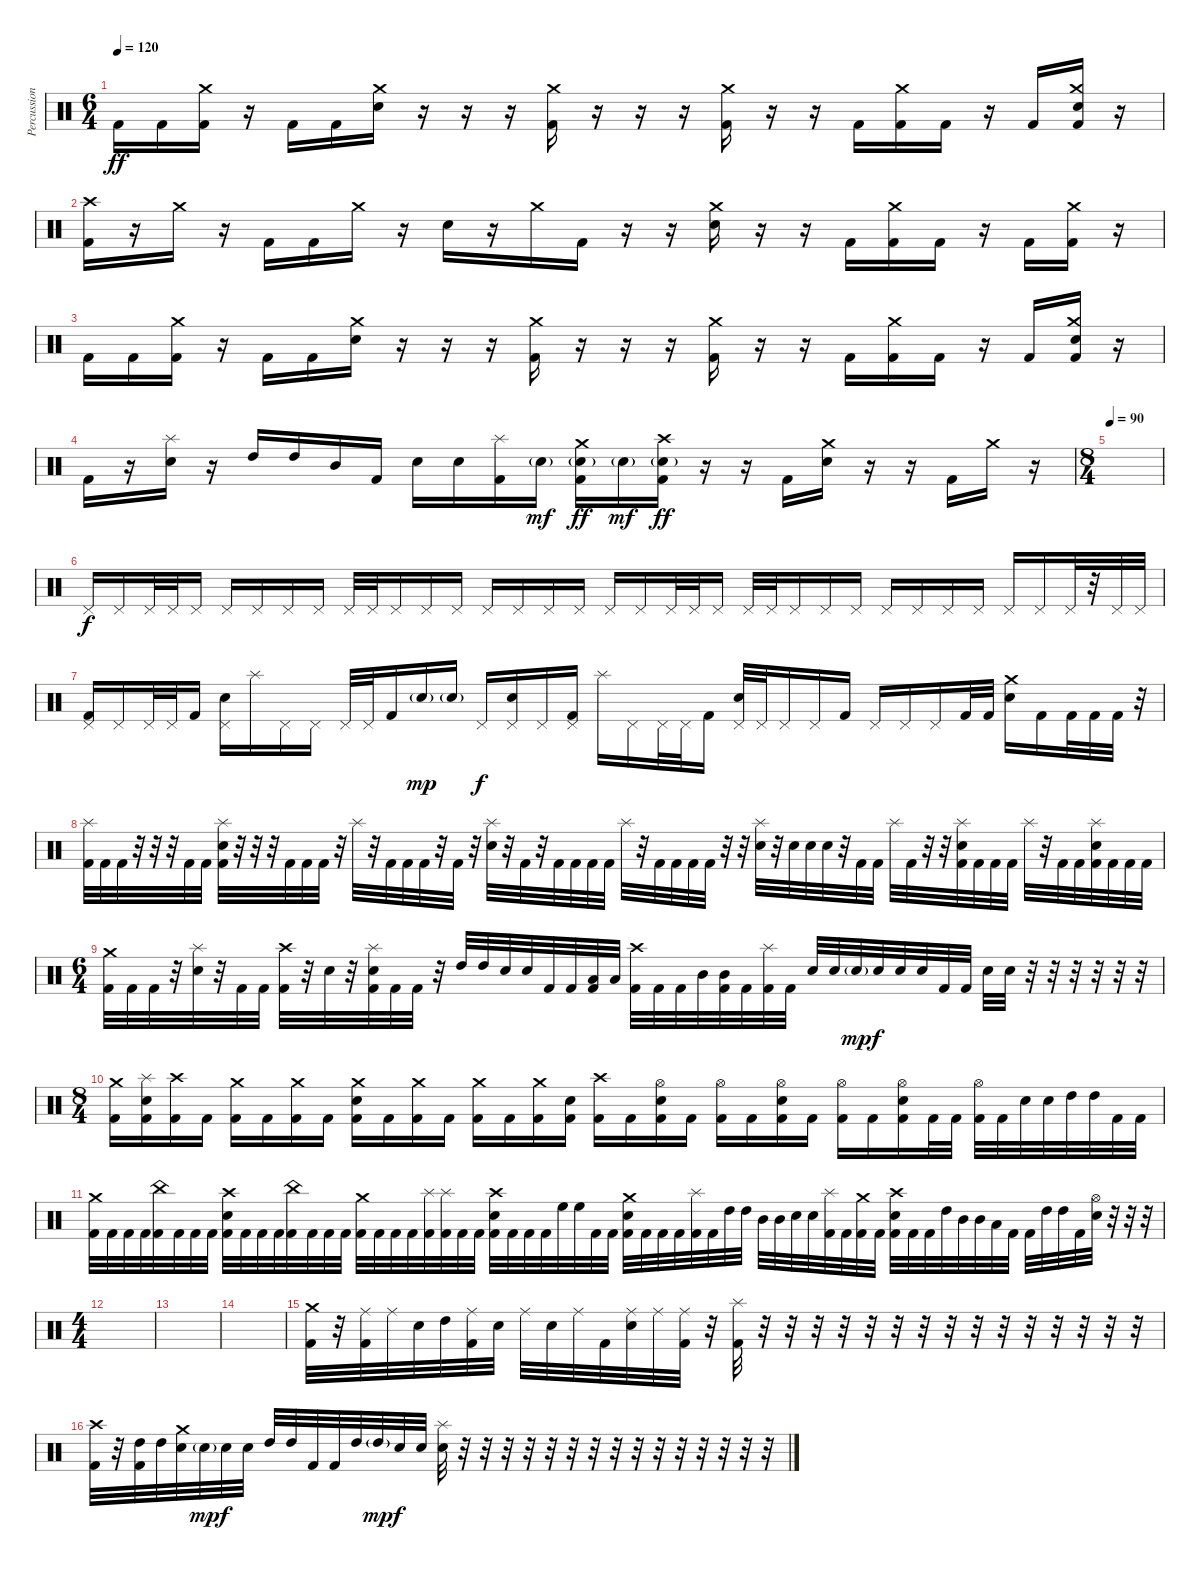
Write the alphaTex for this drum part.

\track ("Percussion" "Percussion") {instrument percussion}
\staff {score}
\articulation defaults
\ts (6 4)
\tempo 120
\clef neutral
\ks c "Kick (hit) 2".16{dy ff} "Kick (hit) 2".16
("Crash medium (hit)" "Kick (hit) 2").16 r.16 "Kick (hit) 2".16 "Kick (hit) 2".16 ("Crash medium (hit)" "Electric Snare (hit)").16 r.16 r.16 r.16 ("Crash medium (hit)" "Kick (hit) 2").16 r.16 r.16 r.16 ("Crash medium (hit)" "Kick (hit) 2").16 r.16 r.16 "Kick (hit) 2".16 ("Crash medium (hit)" "Kick (hit) 2").16 "Kick (hit) 2".16 r.16 "Kick (hit) 2".16 ("Crash medium (hit)" "Electric Snare (hit)" "Kick (hit) 2").16 r.16 |
("Crash high (hit)" "Kick (hit) 2").16 r.16 "Crash medium (hit)".16 r.16 "Kick (hit) 2".16 "Kick (hit) 2".16 "Crash medium (hit)".16 r.16 "Electric Snare (hit)".16 r.16 "Crash medium (hit)".16 "Kick (hit) 2".16 r.16 r.16 ("Crash medium (hit)" "Electric Snare (hit)").16 r.16 r.16 "Kick (hit) 2".16 ("Crash medium (hit)" "Kick (hit) 2").16 "Kick (hit) 2".16 r.16 "Kick (hit) 2".16 ("Crash medium (hit)" "Kick (hit) 2").16 r.16 |
"Kick (hit) 2".16 "Kick (hit) 2".16 ("Crash medium (hit)" "Kick (hit) 2").16 r.16 "Kick (hit) 2".16 "Kick (hit) 2".16 ("Crash medium (hit)" "Electric Snare (hit)").16 r.16 r.16 r.16 ("Crash medium (hit)" "Kick (hit) 2").16 r.16 r.16 r.16 ("Crash medium (hit)" "Kick (hit) 2").16 r.16 r.16 "Kick (hit) 2".16 ("Crash medium (hit)" "Kick (hit) 2").16 "Kick (hit) 2".16 r.16 "Kick (hit) 2".16 ("Crash medium (hit)" "Electric Snare (hit)" "Kick (hit) 2").16 r.16 |
"Kick (hit) 2".16 r.16 ("Splash (hit)" "Electric Snare (hit)").16 r.16 "High Tom (hit)".16 "High Tom (hit)".16 "Mid Tom (hit)".16 "Kick (hit) 2".16 "Electric Snare (hit)".16 "Electric Snare (hit)".16 ("Splash (hit)" "Kick (hit) 2").16 "Electric Snare (hit)"{g}.16{dy mf} ("Crash medium (hit)" "Electric Snare (hit)"{g} "Kick (hit) 2").16{dy ff} "Electric Snare (hit)"{g}.16{dy mf} ("Crash high (hit)" "Electric Snare (hit)"{g} "Kick (hit) 2").16{dy ff} r.16 r.16 "Kick (hit) 2".16 ("Crash medium (hit)" "Electric Snare (hit)").16 r.16 r.16 "Kick (hit) 2".16 "Crash medium (hit)".16 r.16 |
\ts (8 4)
\tempo 90
|
"Pedal Hi-Hat (hit)".16{dy f} "Pedal Hi-Hat (hit)".16 "Pedal Hi-Hat (hit)".32 "Pedal Hi-Hat (hit)".32 "Pedal Hi-Hat (hit)".16 "Pedal Hi-Hat (hit)".16 "Pedal Hi-Hat (hit)".16 "Pedal Hi-Hat (hit)".16 "Pedal Hi-Hat (hit)".16 "Pedal Hi-Hat (hit)".32 "Pedal Hi-Hat (hit)".32 "Pedal Hi-Hat (hit)".16 "Pedal Hi-Hat (hit)".16 "Pedal Hi-Hat (hit)".16 "Pedal Hi-Hat (hit)".16 "Pedal Hi-Hat (hit)".16 "Pedal Hi-Hat (hit)".16 "Pedal Hi-Hat (hit)".16 "Pedal Hi-Hat (hit)".16 "Pedal Hi-Hat (hit)".16 "Pedal Hi-Hat (hit)".32 "Pedal Hi-Hat (hit)".32 "Pedal Hi-Hat (hit)".16 "Pedal Hi-Hat (hit)".32 "Pedal Hi-Hat (hit)".32 "Pedal Hi-Hat (hit)".16 "Pedal Hi-Hat (hit)".16 "Pedal Hi-Hat (hit)".16 "Pedal Hi-Hat (hit)".16 "Pedal Hi-Hat (hit)".16 "Pedal Hi-Hat (hit)".16 "Pedal Hi-Hat (hit)".16 "Pedal Hi-Hat (hit)".16 "Pedal Hi-Hat (hit)".16 "Pedal Hi-Hat (hit)".32 r.32 "Pedal Hi-Hat (hit)".32 "Pedal Hi-Hat (hit)".32 |
("Pedal Hi-Hat (hit)" "Kick (hit) 2").16 "Pedal Hi-Hat (hit)".16 "Pedal Hi-Hat (hit)".32 "Pedal Hi-Hat (hit)".32 "Kick (hit) 2".16 ("Pedal Hi-Hat (hit)" "Electric Snare (hit)").16 "Splash (hit)".16 "Pedal Hi-Hat (hit)".16 "Pedal Hi-Hat (hit)".16 "Pedal Hi-Hat (hit)".32 "Pedal Hi-Hat (hit)".32 "Kick (hit) 2".16 "Electric Snare (hit)"{g}.16{dy mp} "Electric Snare (hit)"{g}.16 "Pedal Hi-Hat (hit)".16{dy f} ("Pedal Hi-Hat (hit)" "Electric Snare (hit)").16 "Pedal Hi-Hat (hit)".16 ("Pedal Hi-Hat (hit)" "Kick (hit) 2").16 "Splash (hit)".16 "Pedal Hi-Hat (hit)".16 "Pedal Hi-Hat (hit)".32 "Pedal Hi-Hat (hit)".32 "Kick (hit) 2".16 ("Pedal Hi-Hat (hit)" "Electric Snare (hit)").32 "Pedal Hi-Hat (hit)".32 "Pedal Hi-Hat (hit)".16 "Pedal Hi-Hat (hit)".16 "Kick (hit) 2".16 "Pedal Hi-Hat (hit)".16 "Pedal Hi-Hat (hit)".16 "Pedal Hi-Hat (hit)".16 "Kick (hit) 2".32 "Kick (hit) 2".32 ("Crash medium (hit)" "Electric Snare (hit)").16 "Kick (hit) 2".16 "Kick (hit) 2".32 "Kick (hit) 2".32 "Kick (hit) 2".32 r.32 |
("Splash (hit)" "Kick (hit) 2").32 "Kick (hit) 2".32 "Kick (hit) 2".32 r.32 r.32 r.32 "Kick (hit) 2".32 "Kick (hit) 2".32 ("Splash (hit)" "Electric Snare (hit)" "Kick (hit) 2").32 r.32 r.32 r.32 "Kick (hit) 2".32 "Kick (hit) 2".32 "Kick (hit) 2".32 r.32 "Splash (hit)".32 r.32 "Kick (hit) 2".32 "Kick (hit) 2".32 "Kick (hit) 2".32 r.32 "Kick (hit) 2".32 r.32 ("Splash (hit)" "Electric Snare (hit)").32 r.32 "Kick (hit) 2".32 r.32 "Kick (hit) 2".32 "Kick (hit) 2".32 "Kick (hit) 2".32 "Kick (hit) 2".32 "Splash (hit)".32 r.32 "Kick (hit) 2".32 "Kick (hit) 2".32 "Kick (hit) 2".32 "Kick (hit) 2".32 r.32 r.32 ("Splash (hit)" "Electric Snare (hit)").32 r.32 "Electric Snare (hit)".32 "Electric Snare (hit)".32 "Electric Snare (hit)".32 r.32 "Kick (hit) 2".32 "Kick (hit) 2".32 "Splash (hit)".32 "Kick (hit) 2".32 r.32 r.32 ("Splash (hit)" "Electric Snare (hit)" "Kick (hit) 2").32 "Kick (hit) 2".32 "Kick (hit) 2".32 "Kick (hit) 2".32 "Splash (hit)".32 r.32 "Kick (hit) 2".32 "Kick (hit) 2".32 ("Splash (hit)" "Electric Snare (hit)" "Kick (hit) 2").32 "Kick (hit) 2".32 "Kick (hit) 2".32 "Kick (hit) 2".32 |
\ts (6 4)
("Crash medium (hit)" "Kick (hit) 2").32 "Kick (hit) 2".32 "Kick (hit) 2".32 r.32 ("Splash (hit)" "Electric Snare (hit)").32 r.32 "Kick (hit) 2".32 "Kick (hit) 2".32 ("Crash high (hit)" "Kick (hit) 2").32 r.32 "Electric Snare (hit)".32 r.32 ("Splash (hit)" "Electric Snare (hit)" "Kick (hit) 2").32 "Kick (hit) 2".32 "Kick (hit) 2".32 r.32 "High Tom (hit)".32 "High Tom (hit)".32 "Electric Snare (hit)".32 "Electric Snare (hit)".32 "Kick (hit) 2".32 "Kick (hit) 2".32 ("Low Tom (hit)" "Kick (hit) 2").32 "Low Tom (hit)".32 ("Crash high (hit)" "Kick (hit) 2").32 "Kick (hit) 2".32 "Kick (hit) 2".32 "Mid Tom (hit)".32 ("Mid Tom (hit)" "Kick (hit) 2").32 "Kick (hit) 2".32 ("Splash (hit)" "Kick (hit) 2").32 "Kick (hit) 2".32 "Electric Snare (hit)".32 "Electric Snare (hit)".32 "Electric Snare (hit)"{g}.32{dy mp} "Electric Snare (hit)".32{dy f} "Electric Snare (hit)".32 "Electric Snare (hit)".32 "Kick (hit) 2".32 "Kick (hit) 2".32 "Electric Snare (hit)".32 "Electric Snare (hit)".32 r.32 r.32 r.32 r.32 r.32 r.32 |
\ts (8 4)
("Crash medium (hit)" "Kick (hit) 2").16 ("Splash (hit)" "Electric Snare (hit)" "Kick (hit) 2").16 ("Crash high (hit)" "Kick (hit) 2").16 "Kick (hit) 2".16 ("Crash medium (hit)" "Kick (hit) 2").16 "Kick (hit) 2".16 ("Crash medium (hit)" "Kick (hit) 2").16 "Kick (hit) 2".16 ("Crash medium (hit)" "Electric Snare (hit)" "Kick (hit) 2").16 "Kick (hit) 2".16 ("Crash medium (hit)" "Kick (hit) 2").16 "Kick (hit) 2".16 ("Crash medium (hit)" "Kick (hit) 2").16 "Kick (hit) 2".16 ("Crash medium (hit)" "Kick (hit) 2").16 ("Electric Snare (hit)" "Kick (hit) 2").16 ("Crash high (hit)" "Kick (hit) 2").16 "Kick (hit) 2".16 ("Hi-Hat (open)" "Electric Snare (hit)" "Kick (hit) 2").16 "Kick (hit) 2".16 ("Hi-Hat (open)" "Kick (hit) 2").16 "Kick (hit) 2".16 ("Hi-Hat (open)" "Electric Snare (hit)" "Kick (hit) 2").16 "Kick (hit) 2".16 ("Hi-Hat (open)" "Kick (hit) 2").16 "Kick (hit) 2".16 ("Hi-Hat (open)" "Electric Snare (hit)" "Kick (hit) 2").16 "Kick (hit) 2".32 "Kick (hit) 2".32 ("Hi-Hat (open)" "Kick (hit) 2").32 "Kick (hit) 2".32 "Electric Snare (hit)".32 "Electric Snare (hit)".32 "High Tom (hit)".32 "High Tom (hit)".32 "Kick (hit) 2".32 "Kick (hit) 2".32 |
("Crash medium (hit)" "Kick (hit) 2").32 "Kick (hit) 2".32 "Kick (hit) 2".32 "Kick (hit) 2".32 ("China (hit)" "Kick (hit) 2").32 "Kick (hit) 2".32 "Kick (hit) 2".32 "Kick (hit) 2".32 ("Crash high (hit)" "Electric Snare (hit)" "Kick (hit) 2").32 "Kick (hit) 2".32 "Kick (hit) 2".32 "Kick (hit) 2".32 ("China (hit)" "Kick (hit) 2").32 "Kick (hit) 2".32 "Kick (hit) 2".32 "Kick (hit) 2".32 ("Crash medium (hit)" "Kick (hit) 2").32 "Kick (hit) 2".32 "Kick (hit) 2".32 "Kick (hit) 2".32 ("Splash (hit)" "Kick (hit) 2").32 ("Splash (hit)" "Kick (hit) 2").32 "Kick (hit) 2".32 "Kick (hit) 2".32 ("Crash high (hit)" "Electric Snare (hit)" "Kick (hit) 2").32 "Kick (hit) 2".32 "Kick (hit) 2".32 "Kick (hit) 2".32 "High Floor Tom (hit)".32 "High Floor Tom (hit)".32 "Kick (hit) 2".32 "Kick (hit) 2".32 ("Crash medium (hit)" "Electric Snare (hit)" "Kick (hit) 2").32 "Kick (hit) 2".32 "Kick (hit) 2".32 "Kick (hit) 2".32 ("Splash (hit)" "Kick (hit) 2").32 "Kick (hit) 2".32 "High Tom (hit)".32 "High Tom (hit)".32 "Mid Tom (hit)".32 "Mid Tom (hit)".32 "Electric Snare (hit)".32 "Electric Snare (hit)".32 ("Splash (hit)" "Kick (hit) 2").32 "Kick (hit) 2".32 ("Crash medium (hit)" "Kick (hit) 2").32 "Kick (hit) 2".32 ("Crash high (hit)" "Electric Snare (hit)" "Kick (hit) 2").32 "Kick (hit) 2".32 "Kick (hit) 2".32 "High Tom (hit)".32 "Mid Tom (hit)".32 "Mid Tom (hit)".32 "Low Tom (hit)".32 "Kick (hit) 2".32 "Kick (hit) 2".32 "High Tom (hit)".32 "High Tom (hit)".32 "Kick (hit) 2".32 ("Hi-Hat (open)" "Electric Snare (hit)").32 r.32 r.32 r.32 |
\ts (4 4)
|
|
|
("Crash medium (hit)" "Kick (hit) 2").32 r.32 ("Ride (middle)" "Kick (hit) 2").32 "Ride (middle)".32 "Electric Snare (hit)".32 "High Tom (hit)".32 ("Ride (middle)" "Kick (hit) 2").32 "Electric Snare (hit)".32 "Ride (middle)".32 "Electric Snare (hit)".32 "Ride (middle)".32 "Kick (hit) 2".32 ("Ride (middle)" "Electric Snare (hit)").32 "Ride (middle)".32 ("Ride (middle)" "Kick (hit) 2").32 r.32 ("Splash (hit)" "Kick (hit) 2").32 r.32 r.32 r.32 r.32 r.32 r.32 r.32 r.32 r.32 r.32 r.32 r.32 r.32 r.32 r.32 |
("Crash high (hit)" "Kick (hit) 2").32 r.32 ("High Tom (hit)" "Kick (hit) 2").32 "High Tom (hit)".32 ("Crash medium (hit)" "Electric Snare (hit)").32 "Electric Snare (hit)"{g}.32{dy mp} "Electric Snare (hit)".32{dy f} "Electric Snare (hit)".32 "High Tom (hit)".32 "High Tom (hit)".32 "Kick (hit) 2".32 "Kick (hit) 2".32 "High Tom (hit)".32 "High Tom (hit)"{g}.32{dy mp} "Electric Snare (hit)".32{dy f} "Electric Snare (hit)".32 ("Splash (hit)" "Electric Snare (hit)").32 r.32 r.32 r.32 r.32 r.32 r.32 r.32 r.32 r.32 r.32 r.32 r.32 r.32 r.32 r.32
